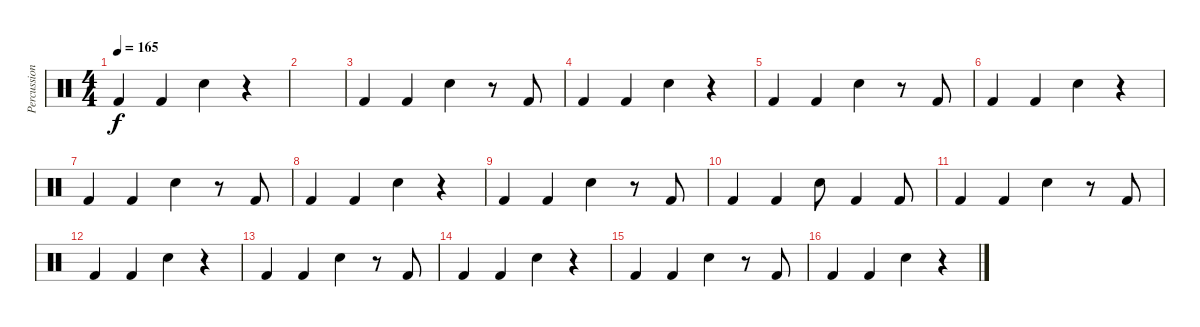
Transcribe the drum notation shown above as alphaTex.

\track ("Percussion" "Percussion") {instrument percussion}
\staff {score}
\articulation defaults
\ts (4 4)
\tempo 165
\clef neutral
\ks c "Kick (hit) 2".4{dy f} "Kick (hit) 2".4 "Electric Snare (hit)".4
r.4 |
|
"Kick (hit) 2".4 "Kick (hit) 2".4 "Electric Snare (hit)".4 r.8 "Kick (hit) 2".8 |
"Kick (hit) 2".4 "Kick (hit) 2".4 "Electric Snare (hit)".4 r.4 |
"Kick (hit) 2".4 "Kick (hit) 2".4 "Electric Snare (hit)".4 r.8 "Kick (hit) 2".8 |
"Kick (hit) 2".4 "Kick (hit) 2".4 "Electric Snare (hit)".4 r.4 |
"Kick (hit) 2".4 "Kick (hit) 2".4 "Electric Snare (hit)".4 r.8 "Kick (hit) 2".8 |
"Kick (hit) 2".4 "Kick (hit) 2".4 "Electric Snare (hit)".4 r.4 |
"Kick (hit) 2".4 "Kick (hit) 2".4 "Electric Snare (hit)".4 r.8 "Kick (hit) 2".8 |
"Kick (hit) 2".4 "Kick (hit) 2".4 "Electric Snare (hit)".8 "Kick (hit) 2".4 "Kick (hit) 2".8 |
"Kick (hit) 2".4 "Kick (hit) 2".4 "Electric Snare (hit)".4 r.8 "Kick (hit) 2".8 |
"Kick (hit) 2".4 "Kick (hit) 2".4 "Electric Snare (hit)".4 r.4 |
"Kick (hit) 2".4 "Kick (hit) 2".4 "Electric Snare (hit)".4 r.8 "Kick (hit) 2".8 |
"Kick (hit) 2".4 "Kick (hit) 2".4 "Electric Snare (hit)".4 r.4 |
"Kick (hit) 2".4 "Kick (hit) 2".4 "Electric Snare (hit)".4 r.8 "Kick (hit) 2".8 |
"Kick (hit) 2".4 "Kick (hit) 2".4 "Electric Snare (hit)".4 r.4
